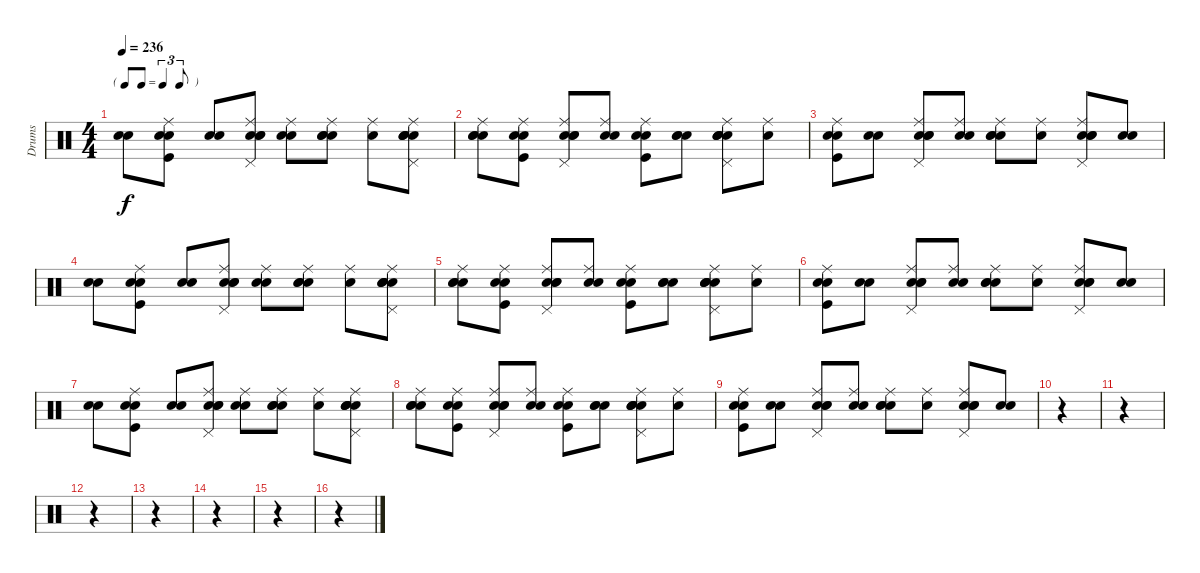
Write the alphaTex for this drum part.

\track ("Drums" "Drums") {instrument percussion}
\staff {score}
\articulation defaults
\ts (4 4)
\tf triplet8th
\tempo 236
\clef neutral
\ks c
("Snare (hit)" "Snare (hit) 2").8{dy f} ("Snare (hit)" "Kick (hit)" "Electric Snare (hit)" "Ride (middle)").8 ("Snare (hit)" "Electric Snare (hit)").8 ("Snare (hit)" "Snare (hit) 2" "Electric Snare (hit)" "Ride (middle)" "Pedal Hi-Hat (hit)").8 ("Snare (hit)" "Snare (hit) 2" "Ride (middle)").8 ("Snare (hit)" "Snare (hit) 2" "Electric Snare (hit)" "Ride (middle)").8 ("Snare (hit)" "Ride (middle)").8 ("Snare (hit)" "Snare (hit) 2" "Electric Snare (hit)" "Ride (middle)" "Pedal Hi-Hat (hit)" "Hand Clap (hit)").8 |
("Snare (hit)" "Snare (hit) 2" "Ride (middle)" "Hand Clap (hit)").8 ("Snare (hit)" "Kick (hit)" "Electric Snare (hit)" "Ride (middle)").8 ("Snare (hit)" "Snare (hit) 2" "Electric Snare (hit)" "Ride (middle)" "Pedal Hi-Hat (hit)").8 ("Snare (hit)" "Snare (hit) 2" "Ride (middle)").8 ("Snare (hit)" "Kick (hit)" "Electric Snare (hit)" "Ride (middle)").8 ("Snare (hit)" "Electric Snare (hit)" "Hand Clap (hit)").8 ("Snare (hit)" "Snare (hit) 2" "Electric Snare (hit)" "Ride (middle)" "Pedal Hi-Hat (hit)" "Hand Clap (hit)").8 ("Snare (hit)" "Ride (middle)").8 |
("Snare (hit)" "Kick (hit)" "Electric Snare (hit)" "Ride (middle)").8 ("Snare (hit)" "Electric Snare (hit)").8 ("Snare (hit)" "Snare (hit) 2" "Electric Snare (hit)" "Ride (middle)" "Pedal Hi-Hat (hit)").8 ("Snare (hit)" "Snare (hit) 2" "Ride (middle)").8 ("Snare (hit)" "Snare (hit) 2" "Electric Snare (hit)" "Ride (middle)").8 ("Snare (hit)" "Ride (middle)").8 ("Snare (hit)" "Snare (hit) 2" "Electric Snare (hit)" "Ride (middle)" "Pedal Hi-Hat (hit)").8 ("Snare (hit)" "Snare (hit) 2").8 |
("Snare (hit)" "Snare (hit) 2").8 ("Snare (hit)" "Kick (hit)" "Electric Snare (hit)" "Ride (middle)").8 ("Snare (hit)" "Electric Snare (hit)").8 ("Snare (hit)" "Snare (hit) 2" "Electric Snare (hit)" "Ride (middle)" "Pedal Hi-Hat (hit)").8 ("Snare (hit)" "Snare (hit) 2" "Ride (middle)").8 ("Snare (hit)" "Snare (hit) 2" "Electric Snare (hit)" "Ride (middle)").8 ("Snare (hit)" "Ride (middle)").8 ("Snare (hit)" "Snare (hit) 2" "Electric Snare (hit)" "Ride (middle)" "Pedal Hi-Hat (hit)" "Hand Clap (hit)").8 |
("Snare (hit)" "Snare (hit) 2" "Ride (middle)" "Hand Clap (hit)").8 ("Snare (hit)" "Kick (hit)" "Electric Snare (hit)" "Ride (middle)").8 ("Snare (hit)" "Snare (hit) 2" "Electric Snare (hit)" "Ride (middle)" "Pedal Hi-Hat (hit)").8 ("Snare (hit)" "Snare (hit) 2" "Ride (middle)").8 ("Snare (hit)" "Kick (hit)" "Electric Snare (hit)" "Ride (middle)").8 ("Snare (hit)" "Electric Snare (hit)" "Hand Clap (hit)").8 ("Snare (hit)" "Snare (hit) 2" "Electric Snare (hit)" "Ride (middle)" "Pedal Hi-Hat (hit)" "Hand Clap (hit)").8 ("Snare (hit)" "Ride (middle)").8 |
("Snare (hit)" "Kick (hit)" "Electric Snare (hit)" "Ride (middle)").8 ("Snare (hit)" "Electric Snare (hit)").8 ("Snare (hit)" "Snare (hit) 2" "Electric Snare (hit)" "Ride (middle)" "Pedal Hi-Hat (hit)").8 ("Snare (hit)" "Snare (hit) 2" "Ride (middle)").8 ("Snare (hit)" "Snare (hit) 2" "Electric Snare (hit)" "Ride (middle)").8 ("Snare (hit)" "Ride (middle)").8 ("Snare (hit)" "Snare (hit) 2" "Electric Snare (hit)" "Ride (middle)" "Pedal Hi-Hat (hit)").8 ("Snare (hit)" "Snare (hit) 2").8 |
("Snare (hit)" "Snare (hit) 2").8 ("Snare (hit)" "Kick (hit)" "Electric Snare (hit)" "Ride (middle)").8 ("Snare (hit)" "Electric Snare (hit)").8 ("Snare (hit)" "Snare (hit) 2" "Electric Snare (hit)" "Ride (middle)" "Pedal Hi-Hat (hit)").8 ("Snare (hit)" "Snare (hit) 2" "Ride (middle)").8 ("Snare (hit)" "Snare (hit) 2" "Electric Snare (hit)" "Ride (middle)").8 ("Snare (hit)" "Ride (middle)").8 ("Snare (hit)" "Snare (hit) 2" "Electric Snare (hit)" "Ride (middle)" "Pedal Hi-Hat (hit)" "Hand Clap (hit)").8 |
("Snare (hit)" "Snare (hit) 2" "Ride (middle)" "Hand Clap (hit)").8 ("Snare (hit)" "Kick (hit)" "Electric Snare (hit)" "Ride (middle)").8 ("Snare (hit)" "Snare (hit) 2" "Electric Snare (hit)" "Ride (middle)" "Pedal Hi-Hat (hit)").8 ("Snare (hit)" "Snare (hit) 2" "Ride (middle)").8 ("Snare (hit)" "Kick (hit)" "Electric Snare (hit)" "Ride (middle)").8 ("Snare (hit)" "Electric Snare (hit)" "Hand Clap (hit)").8 ("Snare (hit)" "Snare (hit) 2" "Electric Snare (hit)" "Ride (middle)" "Pedal Hi-Hat (hit)" "Hand Clap (hit)").8 ("Snare (hit)" "Ride (middle)").8 |
("Snare (hit)" "Kick (hit)" "Electric Snare (hit)" "Ride (middle)").8 ("Snare (hit)" "Electric Snare (hit)").8 ("Snare (hit)" "Snare (hit) 2" "Electric Snare (hit)" "Ride (middle)" "Pedal Hi-Hat (hit)").8 ("Snare (hit)" "Snare (hit) 2" "Ride (middle)").8 ("Snare (hit)" "Snare (hit) 2" "Electric Snare (hit)" "Ride (middle)").8 ("Snare (hit)" "Ride (middle)").8 ("Snare (hit)" "Snare (hit) 2" "Electric Snare (hit)" "Ride (middle)" "Pedal Hi-Hat (hit)").8 ("Snare (hit)" "Snare (hit) 2").8 |
r.4 |
r.4 |
r.4 |
r.4 |
r.4 |
r.4 |
r.4
